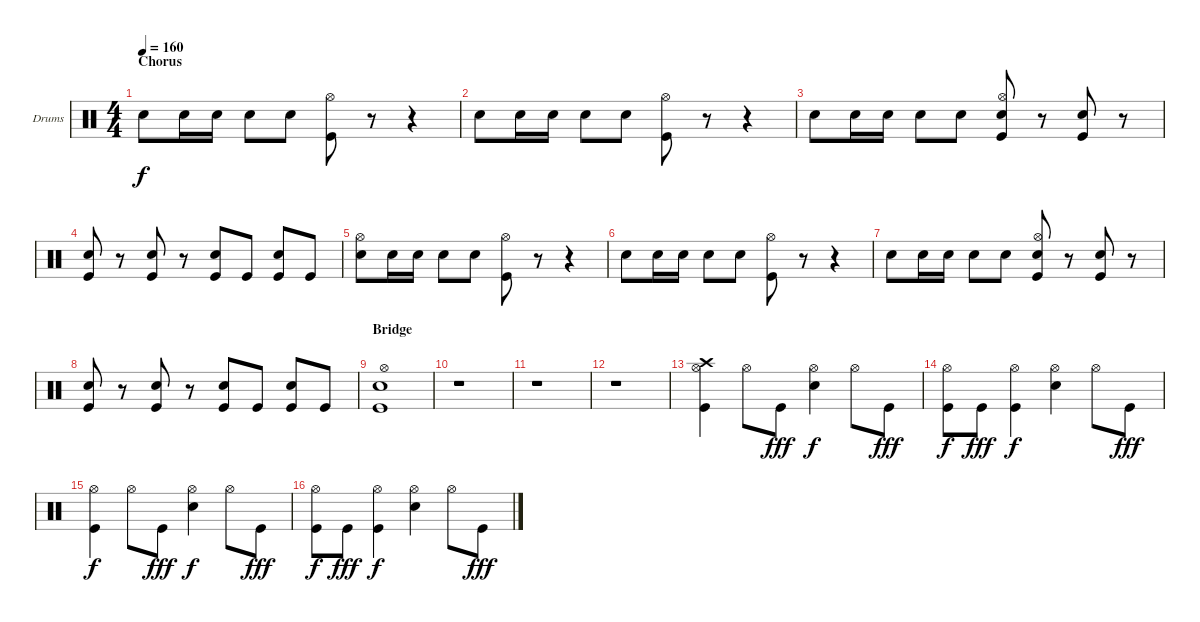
\bracketExtendMode groupsimilarinstruments
\firstSystemTrackNameOrientation horizontal
\otherSystemsTrackNameOrientation horizontal
\track ("Lars Ulrich (Drum)" "Drums") {instrument percussion}
\staff {score}
\articulation defaults
\ts (4 4)
\section ("" "Chorus")
\tempo 160
\clef neutral
\ks c "Snare (hit) 2".8{dy f} "Snare (hit) 2".16 "Snare (hit) 2".16 "Snare (hit) 2".8 "Snare (hit) 2".8
("Hi-Hat (open)" "Kick (hit)").8 r.8 r.4 |
"Snare (hit) 2".8 "Snare (hit) 2".16 "Snare (hit) 2".16 "Snare (hit) 2".8 "Snare (hit) 2".8 ("Hi-Hat (open)" "Kick (hit)").8 r.8 r.4 |
"Snare (hit) 2".8 "Snare (hit) 2".16 "Snare (hit) 2".16 "Snare (hit) 2".8 "Snare (hit) 2".8 ("Hi-Hat (open)" "Snare (hit) 2" "Kick (hit)").8 r.8 ("Snare (hit) 2" "Kick (hit)").8 r.8 |
("Snare (hit) 2" "Kick (hit)").8 r.8 ("Snare (hit) 2" "Kick (hit)").8 r.8 ("Snare (hit) 2" "Kick (hit)").8 "Kick (hit)".8 ("Snare (hit) 2" "Kick (hit)").8 "Kick (hit)".8 |
("Hi-Hat (open)" "Snare (hit) 2").8 "Snare (hit) 2".16 "Snare (hit) 2".16 "Snare (hit) 2".8 "Snare (hit) 2".8 ("Hi-Hat (open)" "Kick (hit)").8 r.8 r.4 |
"Snare (hit) 2".8 "Snare (hit) 2".16 "Snare (hit) 2".16 "Snare (hit) 2".8 "Snare (hit) 2".8 ("Hi-Hat (open)" "Kick (hit)").8 r.8 r.4 |
"Snare (hit) 2".8 "Snare (hit) 2".16 "Snare (hit) 2".16 "Snare (hit) 2".8 "Snare (hit) 2".8 ("Hi-Hat (open)" "Snare (hit) 2" "Kick (hit)").8 r.8 ("Snare (hit) 2" "Kick (hit)").8 r.8 |
("Snare (hit) 2" "Kick (hit)").8 r.8 ("Snare (hit) 2" "Kick (hit)").8 r.8 ("Snare (hit) 2" "Kick (hit)").8 "Kick (hit)".8 ("Snare (hit) 2" "Kick (hit)").8 "Kick (hit)".8 |
\section ("" "Bridge")
("Hi-Hat (open)" "Snare (hit) 2" "Kick (hit)").1 |
r.1 |
r.1 |
r.1 |
("Hi-Hat (open)" "Crash high (hit)" "Kick (hit)").4 "Hi-Hat (open)".8 "Kick (hit)".8{dy fff} ("Hi-Hat (open)" "Snare (hit) 2").4{dy f} "Hi-Hat (open)".8 "Kick (hit)".8{dy fff} |
("Hi-Hat (open)" "Kick (hit)").8{dy f} "Kick (hit)".8{dy fff} ("Hi-Hat (open)" "Kick (hit)").4{dy f} ("Hi-Hat (open)" "Snare (hit) 2").4 "Hi-Hat (open)".8 "Kick (hit)".8{dy fff} |
("Hi-Hat (open)" "Kick (hit)").4{dy f} "Hi-Hat (open)".8 "Kick (hit)".8{dy fff} ("Hi-Hat (open)" "Snare (hit) 2").4{dy f} "Hi-Hat (open)".8 "Kick (hit)".8{dy fff} |
("Hi-Hat (open)" "Kick (hit)").8{dy f} "Kick (hit)".8{dy fff} ("Hi-Hat (open)" "Kick (hit)").4{dy f} ("Hi-Hat (open)" "Snare (hit) 2").4 "Hi-Hat (open)".8 "Kick (hit)".8{dy fff}
